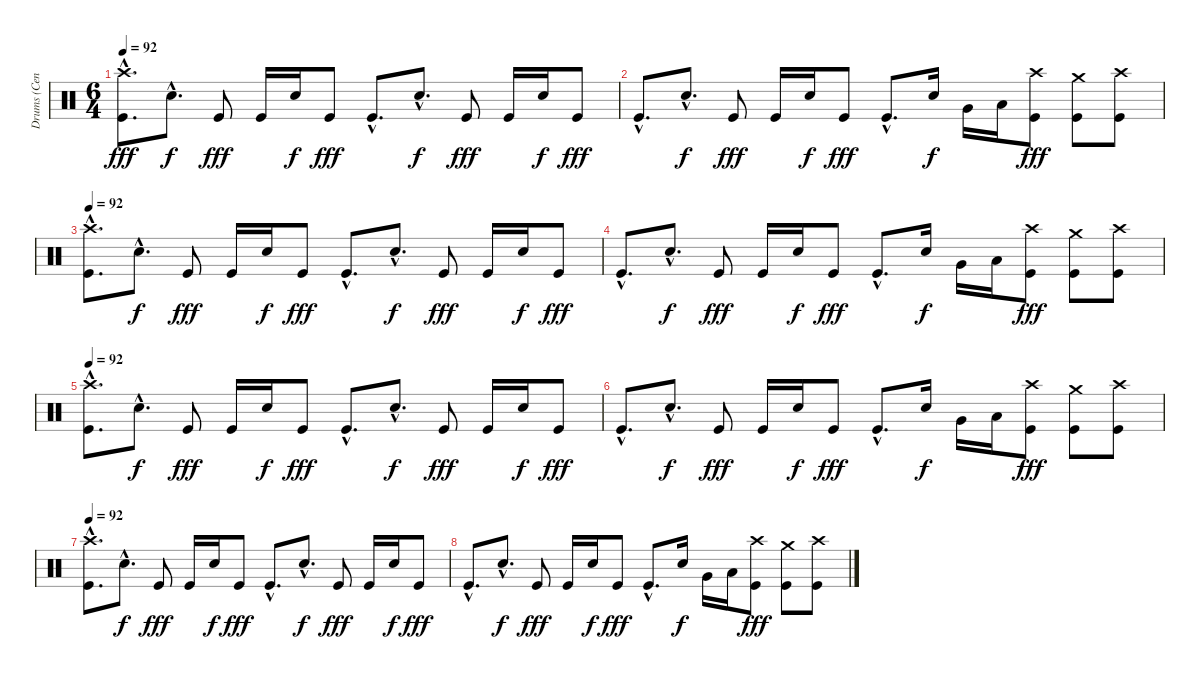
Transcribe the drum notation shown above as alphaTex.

\track ("Drums (Cenk)" "Drums (Cen") {instrument percussion}
\staff {score}
\articulation defaults
\ts (6 4)
\tempo 92
\clef neutral
\ks c
("Crash high (hit)"{hac} "Kick (hit)"{hac}).8{d dy fff} "Snare (hit) 2"{hac}.8{d dy f} "Kick (hit)".8{dy fff} "Kick (hit)".16 "Snare (hit) 2".16{dy f} "Kick (hit)".8{dy fff} "Kick (hit)"{hac}.8{d} "Snare (hit) 2"{hac}.8{d dy f} "Kick (hit)".8{dy fff} "Kick (hit)".16 "Snare (hit) 2".16{dy f} "Kick (hit)".8{dy fff} |
"Kick (hit)"{hac}.8{d} "Snare (hit) 2"{hac}.8{d dy f} "Kick (hit)".8{dy fff} "Kick (hit)".16 "Snare (hit) 2".16{dy f} "Kick (hit)".8{dy fff} "Kick (hit)"{hac}.8{d} "Snare (hit) 2".16{dy f} "Very Low Tom (hit)".16 "Low Floor Tom (hit)".16 ("Crash high (hit)" "Kick (hit)").8{dy fff} ("Crash medium (hit)" "Kick (hit)").8 ("Crash high (hit)" "Kick (hit)").8 |
\tempo 92
("Crash high (hit)"{hac} "Kick (hit)"{hac}).8{d} "Snare (hit) 2"{hac}.8{d dy f} "Kick (hit)".8{dy fff} "Kick (hit)".16 "Snare (hit) 2".16{dy f} "Kick (hit)".8{dy fff} "Kick (hit)"{hac}.8{d} "Snare (hit) 2"{hac}.8{d dy f} "Kick (hit)".8{dy fff} "Kick (hit)".16 "Snare (hit) 2".16{dy f} "Kick (hit)".8{dy fff} |
"Kick (hit)"{hac}.8{d} "Snare (hit) 2"{hac}.8{d dy f} "Kick (hit)".8{dy fff} "Kick (hit)".16 "Snare (hit) 2".16{dy f} "Kick (hit)".8{dy fff} "Kick (hit)"{hac}.8{d} "Snare (hit) 2".16{dy f} "Very Low Tom (hit)".16 "Low Floor Tom (hit)".16 ("Crash high (hit)" "Kick (hit)").8{dy fff} ("Crash medium (hit)" "Kick (hit)").8 ("Crash high (hit)" "Kick (hit)").8 |
\tempo 92
("Crash high (hit)"{hac} "Kick (hit)"{hac}).8{d} "Snare (hit) 2"{hac}.8{d dy f} "Kick (hit)".8{dy fff} "Kick (hit)".16 "Snare (hit) 2".16{dy f} "Kick (hit)".8{dy fff} "Kick (hit)"{hac}.8{d} "Snare (hit) 2"{hac}.8{d dy f} "Kick (hit)".8{dy fff} "Kick (hit)".16 "Snare (hit) 2".16{dy f} "Kick (hit)".8{dy fff} |
"Kick (hit)"{hac}.8{d} "Snare (hit) 2"{hac}.8{d dy f} "Kick (hit)".8{dy fff} "Kick (hit)".16 "Snare (hit) 2".16{dy f} "Kick (hit)".8{dy fff} "Kick (hit)"{hac}.8{d} "Snare (hit) 2".16{dy f} "Very Low Tom (hit)".16 "Low Floor Tom (hit)".16 ("Crash high (hit)" "Kick (hit)").8{dy fff} ("Crash medium (hit)" "Kick (hit)").8 ("Crash high (hit)" "Kick (hit)").8 |
\tempo 92
("Crash high (hit)"{hac} "Kick (hit)"{hac}).8{d} "Snare (hit) 2"{hac}.8{d dy f} "Kick (hit)".8{dy fff} "Kick (hit)".16 "Snare (hit) 2".16{dy f} "Kick (hit)".8{dy fff} "Kick (hit)"{hac}.8{d} "Snare (hit) 2"{hac}.8{d dy f} "Kick (hit)".8{dy fff} "Kick (hit)".16 "Snare (hit) 2".16{dy f} "Kick (hit)".8{dy fff} |
"Kick (hit)"{hac}.8{d} "Snare (hit) 2"{hac}.8{d dy f} "Kick (hit)".8{dy fff} "Kick (hit)".16 "Snare (hit) 2".16{dy f} "Kick (hit)".8{dy fff} "Kick (hit)"{hac}.8{d} "Snare (hit) 2".16{dy f} "Very Low Tom (hit)".16 "Low Floor Tom (hit)".16 ("Crash high (hit)" "Kick (hit)").8{dy fff} ("Crash medium (hit)" "Kick (hit)").8 ("Crash high (hit)" "Kick (hit)").8
